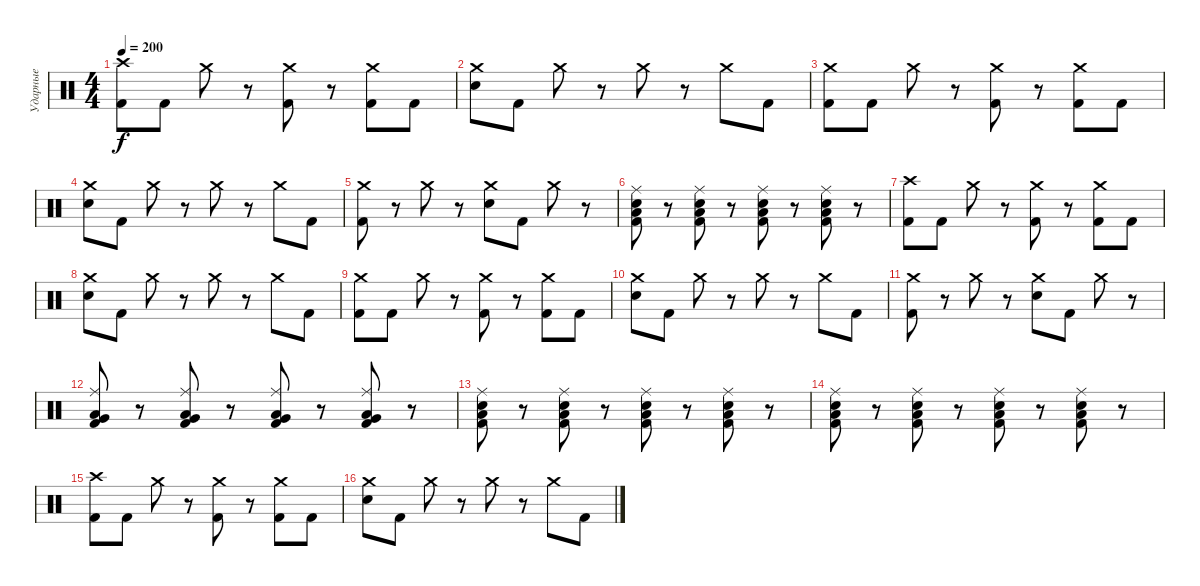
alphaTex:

\track ("Ударные" "Ударные") {instrument percussion}
\staff {score}
\articulation defaults
\ts (4 4)
\tempo 200
\clef neutral
\ks c
("Crash high (hit)" "Kick (hit) 2").8{dy f} "Kick (hit) 2".8 "Crash medium (hit)".8 r.8 ("Crash medium (hit)" "Kick (hit) 2").8 r.8 ("Crash medium (hit)" "Kick (hit) 2").8 "Kick (hit) 2".8 |
("Crash medium (hit)" "Electric Snare (hit)").8 "Kick (hit) 2".8 "Crash medium (hit)".8 r.8 "Crash medium (hit)".8 r.8 "Crash medium (hit)".8 "Kick (hit) 2".8 |
("Crash medium (hit)" "Kick (hit) 2").8 "Kick (hit) 2".8 "Crash medium (hit)".8 r.8 ("Crash medium (hit)" "Kick (hit) 2").8 r.8 ("Crash medium (hit)" "Kick (hit) 2").8 "Kick (hit) 2".8 |
("Crash medium (hit)" "Electric Snare (hit)").8 "Kick (hit) 2".8 "Crash medium (hit)".8 r.8 "Crash medium (hit)".8 r.8 "Crash medium (hit)".8 "Kick (hit) 2".8 |
("Crash medium (hit)" "Kick (hit) 2").8 r.8 "Crash medium (hit)".8 r.8 ("Crash medium (hit)" "Electric Snare (hit)").8 "Kick (hit) 2".8 "Crash medium (hit)".8 r.8 |
("Low Floor Tom (hit)" "Electric Snare (hit)" "Kick (hit) 2" "Ride (middle)").8 r.8 ("Low Floor Tom (hit)" "Electric Snare (hit)" "Kick (hit) 2" "Ride (middle)").8 r.8 ("Low Floor Tom (hit)" "Electric Snare (hit)" "Kick (hit) 2" "Ride (middle)").8 r.8 ("Low Floor Tom (hit)" "Electric Snare (hit)" "Kick (hit) 2" "Ride (middle)").8 r.8 |
("Crash high (hit)" "Kick (hit) 2").8 "Kick (hit) 2".8 "Crash medium (hit)".8 r.8 ("Crash medium (hit)" "Kick (hit) 2").8 r.8 ("Crash medium (hit)" "Kick (hit) 2").8 "Kick (hit) 2".8 |
("Crash medium (hit)" "Electric Snare (hit)").8 "Kick (hit) 2".8 "Crash medium (hit)".8 r.8 "Crash medium (hit)".8 r.8 "Crash medium (hit)".8 "Kick (hit) 2".8 |
("Crash medium (hit)" "Kick (hit) 2").8 "Kick (hit) 2".8 "Crash medium (hit)".8 r.8 ("Crash medium (hit)" "Kick (hit) 2").8 r.8 ("Crash medium (hit)" "Kick (hit) 2").8 "Kick (hit) 2".8 |
("Crash medium (hit)" "Electric Snare (hit)").8 "Kick (hit) 2".8 "Crash medium (hit)".8 r.8 "Crash medium (hit)".8 r.8 "Crash medium (hit)".8 "Kick (hit) 2".8 |
("Crash medium (hit)" "Kick (hit) 2").8 r.8 "Crash medium (hit)".8 r.8 ("Crash medium (hit)" "Electric Snare (hit)").8 "Kick (hit) 2".8 "Crash medium (hit)".8 r.8 |
("Low Floor Tom (hit)" "Very Low Tom (hit)" "Kick (hit) 2" "Ride (middle)").8 r.8 ("Low Floor Tom (hit)" "Very Low Tom (hit)" "Kick (hit) 2" "Ride (middle)").8 r.8 ("Low Floor Tom (hit)" "Very Low Tom (hit)" "Kick (hit) 2" "Ride (middle)").8 r.8 ("Low Floor Tom (hit)" "Very Low Tom (hit)" "Kick (hit) 2" "Ride (middle)").8 r.8 |
("Low Floor Tom (hit)" "Electric Snare (hit)" "Kick (hit) 2" "Ride (middle)").8 r.8 ("Low Floor Tom (hit)" "Electric Snare (hit)" "Kick (hit) 2" "Ride (middle)").8 r.8 ("Low Floor Tom (hit)" "Electric Snare (hit)" "Kick (hit) 2" "Ride (middle)").8 r.8 ("Low Floor Tom (hit)" "Electric Snare (hit)" "Kick (hit) 2" "Ride (middle)").8 r.8 |
("Low Floor Tom (hit)" "Electric Snare (hit)" "Kick (hit) 2" "Ride (middle)").8 r.8 ("Low Floor Tom (hit)" "Electric Snare (hit)" "Kick (hit) 2" "Ride (middle)").8 r.8 ("Low Floor Tom (hit)" "Electric Snare (hit)" "Kick (hit) 2" "Ride (middle)").8 r.8 ("Low Floor Tom (hit)" "Electric Snare (hit)" "Kick (hit) 2" "Ride (middle)").8 r.8 |
("Crash high (hit)" "Kick (hit) 2").8 "Kick (hit) 2".8 "Crash medium (hit)".8 r.8 ("Crash medium (hit)" "Kick (hit) 2").8 r.8 ("Crash medium (hit)" "Kick (hit) 2").8 "Kick (hit) 2".8 |
("Crash medium (hit)" "Electric Snare (hit)").8 "Kick (hit) 2".8 "Crash medium (hit)".8 r.8 "Crash medium (hit)".8 r.8 "Crash medium (hit)".8 "Kick (hit) 2".8
